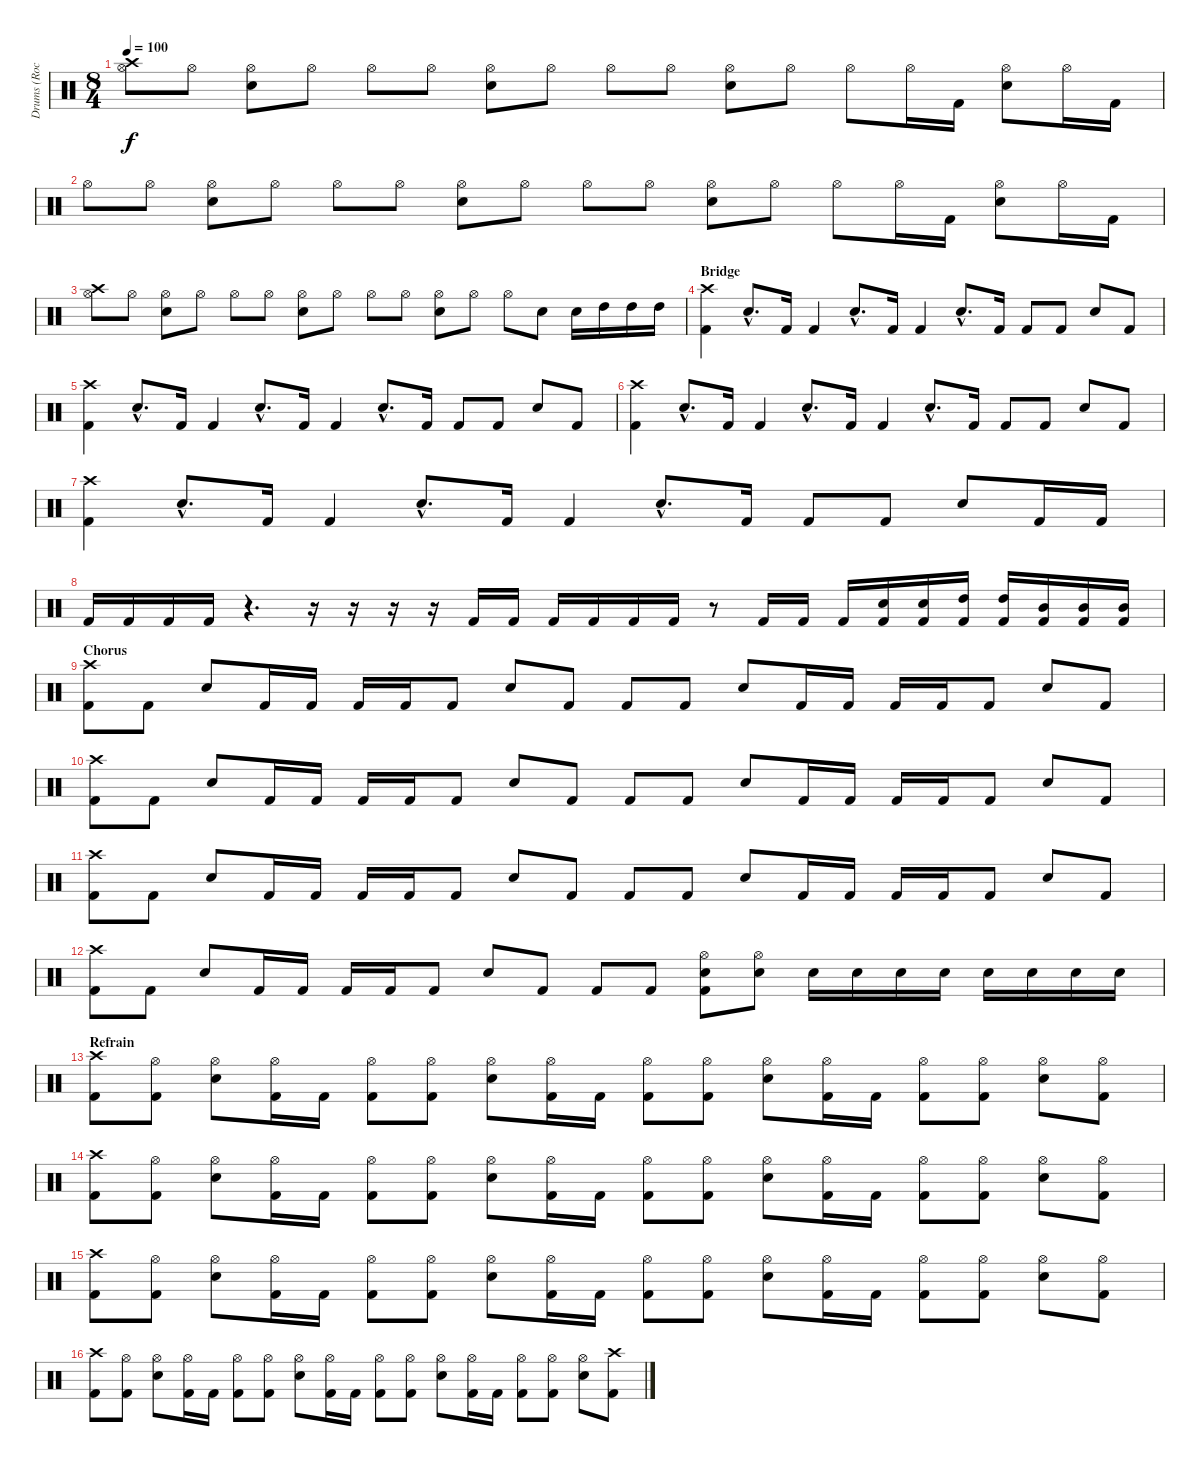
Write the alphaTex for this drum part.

\track ("Drums (Rocky Gray)" "Drums (Roc") {instrument percussion}
\staff {score}
\articulation defaults
\ts (8 4)
\tempo 100
\clef neutral
\ks c
("Crash high (hit)" "Hi-Hat (open)").8{dy f} "Hi-Hat (open)".8 ("Hi-Hat (open)" "Electric Snare (hit)").8 "Hi-Hat (open)".8 "Hi-Hat (open)".8 "Hi-Hat (open)".8 ("Hi-Hat (open)" "Electric Snare (hit)").8 "Hi-Hat (open)".8 "Hi-Hat (open)".8 "Hi-Hat (open)".8 ("Hi-Hat (open)" "Electric Snare (hit)").8 "Hi-Hat (open)".8 "Hi-Hat (open)".8 "Hi-Hat (open)".16 "Kick (hit) 2".16 ("Hi-Hat (open)" "Electric Snare (hit)").8 "Hi-Hat (open)".16 "Kick (hit) 2".16 |
"Hi-Hat (open)".8 "Hi-Hat (open)".8 ("Hi-Hat (open)" "Electric Snare (hit)").8 "Hi-Hat (open)".8 "Hi-Hat (open)".8 "Hi-Hat (open)".8 ("Hi-Hat (open)" "Electric Snare (hit)").8 "Hi-Hat (open)".8 "Hi-Hat (open)".8 "Hi-Hat (open)".8 ("Hi-Hat (open)" "Electric Snare (hit)").8 "Hi-Hat (open)".8 "Hi-Hat (open)".8 "Hi-Hat (open)".16 "Kick (hit) 2".16 ("Hi-Hat (open)" "Electric Snare (hit)").8 "Hi-Hat (open)".16 "Kick (hit) 2".16 |
("Crash high (hit)" "Hi-Hat (open)").8 "Hi-Hat (open)".8 ("Hi-Hat (open)" "Electric Snare (hit)").8 "Hi-Hat (open)".8 "Hi-Hat (open)".8 "Hi-Hat (open)".8 ("Hi-Hat (open)" "Electric Snare (hit)").8 "Hi-Hat (open)".8 "Hi-Hat (open)".8 "Hi-Hat (open)".8 ("Hi-Hat (open)" "Electric Snare (hit)").8 "Hi-Hat (open)".8 "Hi-Hat (open)".8 "Electric Snare (hit)".8 "Electric Snare (hit)".16 "High Tom (hit)".16 "High Tom (hit)".16 "High Tom (hit)".16 |
\section ("" "Bridge")
("Crash high (hit)" "Kick (hit) 2").4 "Electric Snare (hit)"{hac}.8{d} "Kick (hit) 2".16 "Kick (hit) 2".4 "Electric Snare (hit)"{hac}.8{d} "Kick (hit) 2".16 "Kick (hit) 2".4 "Electric Snare (hit)"{hac}.8{d} "Kick (hit) 2".16 "Kick (hit) 2".8 "Kick (hit) 2".8 "Electric Snare (hit)".8 "Kick (hit) 2".8 |
("Crash high (hit)" "Kick (hit) 2").4 "Electric Snare (hit)"{hac}.8{d} "Kick (hit) 2".16 "Kick (hit) 2".4 "Electric Snare (hit)"{hac}.8{d} "Kick (hit) 2".16 "Kick (hit) 2".4 "Electric Snare (hit)"{hac}.8{d} "Kick (hit) 2".16 "Kick (hit) 2".8 "Kick (hit) 2".8 "Electric Snare (hit)".8 "Kick (hit) 2".8 |
("Crash high (hit)" "Kick (hit) 2").4 "Electric Snare (hit)"{hac}.8{d} "Kick (hit) 2".16 "Kick (hit) 2".4 "Electric Snare (hit)"{hac}.8{d} "Kick (hit) 2".16 "Kick (hit) 2".4 "Electric Snare (hit)"{hac}.8{d} "Kick (hit) 2".16 "Kick (hit) 2".8 "Kick (hit) 2".8 "Electric Snare (hit)".8 "Kick (hit) 2".8 |
("Crash high (hit)" "Kick (hit) 2").4 "Electric Snare (hit)"{hac}.8{d} "Kick (hit) 2".16 "Kick (hit) 2".4 "Electric Snare (hit)"{hac}.8{d} "Kick (hit) 2".16 "Kick (hit) 2".4 "Electric Snare (hit)"{hac}.8{d} "Kick (hit) 2".16 "Kick (hit) 2".8 "Kick (hit) 2".8 "Electric Snare (hit)".8 "Kick (hit) 2".16 "Kick (hit) 2".16 |
"Kick (hit) 2".16 "Kick (hit) 2".16 "Kick (hit) 2".16 "Kick (hit) 2".16 r.4{d} r.16 r.16 r.16 r.16 "Kick (hit) 2".16 "Kick (hit) 2".16 "Kick (hit) 2".16 "Kick (hit) 2".16 "Kick (hit) 2".16 "Kick (hit) 2".16 r.8 "Kick (hit) 2".16 "Kick (hit) 2".16 "Kick (hit) 2".16 ("Electric Snare (hit)" "Kick (hit) 2").16 ("Electric Snare (hit)" "Kick (hit) 2").16 ("High Tom (hit)" "Kick (hit) 2").16 ("High Tom (hit)" "Kick (hit) 2").16 ("Mid Tom (hit)" "Kick (hit) 2").16 ("Mid Tom (hit)" "Kick (hit) 2").16 ("Mid Tom (hit)" "Kick (hit) 2").16 |
\section ("" "Chorus")
("Crash high (hit)" "Kick (hit) 2").8 "Kick (hit) 2".8 "Electric Snare (hit)".8 "Kick (hit) 2".16 "Kick (hit) 2".16 "Kick (hit) 2".16 "Kick (hit) 2".16 "Kick (hit) 2".8 "Electric Snare (hit)".8 "Kick (hit) 2".8 "Kick (hit) 2".8 "Kick (hit) 2".8 "Electric Snare (hit)".8 "Kick (hit) 2".16 "Kick (hit) 2".16 "Kick (hit) 2".16 "Kick (hit) 2".16 "Kick (hit) 2".8 "Electric Snare (hit)".8 "Kick (hit) 2".8 |
("Crash high (hit)" "Kick (hit) 2").8 "Kick (hit) 2".8 "Electric Snare (hit)".8 "Kick (hit) 2".16 "Kick (hit) 2".16 "Kick (hit) 2".16 "Kick (hit) 2".16 "Kick (hit) 2".8 "Electric Snare (hit)".8 "Kick (hit) 2".8 "Kick (hit) 2".8 "Kick (hit) 2".8 "Electric Snare (hit)".8 "Kick (hit) 2".16 "Kick (hit) 2".16 "Kick (hit) 2".16 "Kick (hit) 2".16 "Kick (hit) 2".8 "Electric Snare (hit)".8 "Kick (hit) 2".8 |
("Crash high (hit)" "Kick (hit) 2").8 "Kick (hit) 2".8 "Electric Snare (hit)".8 "Kick (hit) 2".16 "Kick (hit) 2".16 "Kick (hit) 2".16 "Kick (hit) 2".16 "Kick (hit) 2".8 "Electric Snare (hit)".8 "Kick (hit) 2".8 "Kick (hit) 2".8 "Kick (hit) 2".8 "Electric Snare (hit)".8 "Kick (hit) 2".16 "Kick (hit) 2".16 "Kick (hit) 2".16 "Kick (hit) 2".16 "Kick (hit) 2".8 "Electric Snare (hit)".8 "Kick (hit) 2".8 |
("Crash high (hit)" "Kick (hit) 2").8 "Kick (hit) 2".8 "Electric Snare (hit)".8 "Kick (hit) 2".16 "Kick (hit) 2".16 "Kick (hit) 2".16 "Kick (hit) 2".16 "Kick (hit) 2".8 "Electric Snare (hit)".8 "Kick (hit) 2".8 "Kick (hit) 2".8 "Kick (hit) 2".8 ("Hi-Hat (open)" "Electric Snare (hit)" "Kick (hit) 2").8 ("Hi-Hat (open)" "Electric Snare (hit)").8 "Electric Snare (hit)".16 "Electric Snare (hit)".16 "Electric Snare (hit)".16 "Electric Snare (hit)".16 "Electric Snare (hit)".16 "Electric Snare (hit)".16 "Electric Snare (hit)".16 "Electric Snare (hit)".16 |
\section ("" "Refrain")
("Crash high (hit)" "Kick (hit) 2").8 ("Hi-Hat (open)" "Kick (hit) 2").8 ("Hi-Hat (open)" "Electric Snare (hit)").8 ("Hi-Hat (open)" "Kick (hit) 2").16 "Kick (hit) 2".16 ("Hi-Hat (open)" "Kick (hit) 2").8 ("Hi-Hat (open)" "Kick (hit) 2").8 ("Hi-Hat (open)" "Electric Snare (hit)").8 ("Hi-Hat (open)" "Kick (hit) 2").16 "Kick (hit) 2".16 ("Hi-Hat (open)" "Kick (hit) 2").8 ("Hi-Hat (open)" "Kick (hit) 2").8 ("Hi-Hat (open)" "Electric Snare (hit)").8 ("Hi-Hat (open)" "Kick (hit) 2").16 "Kick (hit) 2".16 ("Hi-Hat (open)" "Kick (hit) 2").8 ("Hi-Hat (open)" "Kick (hit) 2").8 ("Hi-Hat (open)" "Electric Snare (hit)").8 ("Hi-Hat (open)" "Kick (hit) 2").8 |
("Crash high (hit)" "Kick (hit) 2").8 ("Hi-Hat (open)" "Kick (hit) 2").8 ("Hi-Hat (open)" "Electric Snare (hit)").8 ("Hi-Hat (open)" "Kick (hit) 2").16 "Kick (hit) 2".16 ("Hi-Hat (open)" "Kick (hit) 2").8 ("Hi-Hat (open)" "Kick (hit) 2").8 ("Hi-Hat (open)" "Electric Snare (hit)").8 ("Hi-Hat (open)" "Kick (hit) 2").16 "Kick (hit) 2".16 ("Hi-Hat (open)" "Kick (hit) 2").8 ("Hi-Hat (open)" "Kick (hit) 2").8 ("Hi-Hat (open)" "Electric Snare (hit)").8 ("Hi-Hat (open)" "Kick (hit) 2").16 "Kick (hit) 2".16 ("Hi-Hat (open)" "Kick (hit) 2").8 ("Hi-Hat (open)" "Kick (hit) 2").8 ("Hi-Hat (open)" "Electric Snare (hit)").8 ("Hi-Hat (open)" "Kick (hit) 2").8 |
("Crash high (hit)" "Kick (hit) 2").8 ("Hi-Hat (open)" "Kick (hit) 2").8 ("Hi-Hat (open)" "Electric Snare (hit)").8 ("Hi-Hat (open)" "Kick (hit) 2").16 "Kick (hit) 2".16 ("Hi-Hat (open)" "Kick (hit) 2").8 ("Hi-Hat (open)" "Kick (hit) 2").8 ("Hi-Hat (open)" "Electric Snare (hit)").8 ("Hi-Hat (open)" "Kick (hit) 2").16 "Kick (hit) 2".16 ("Hi-Hat (open)" "Kick (hit) 2").8 ("Hi-Hat (open)" "Kick (hit) 2").8 ("Hi-Hat (open)" "Electric Snare (hit)").8 ("Hi-Hat (open)" "Kick (hit) 2").16 "Kick (hit) 2".16 ("Hi-Hat (open)" "Kick (hit) 2").8 ("Hi-Hat (open)" "Kick (hit) 2").8 ("Hi-Hat (open)" "Electric Snare (hit)").8 ("Hi-Hat (open)" "Kick (hit) 2").8 |
("Crash high (hit)" "Kick (hit) 2").8 ("Hi-Hat (open)" "Kick (hit) 2").8 ("Hi-Hat (open)" "Electric Snare (hit)").8 ("Hi-Hat (open)" "Kick (hit) 2").16 "Kick (hit) 2".16 ("Hi-Hat (open)" "Kick (hit) 2").8 ("Hi-Hat (open)" "Kick (hit) 2").8 ("Hi-Hat (open)" "Electric Snare (hit)").8 ("Hi-Hat (open)" "Kick (hit) 2").16 "Kick (hit) 2".16 ("Hi-Hat (open)" "Kick (hit) 2").8 ("Hi-Hat (open)" "Kick (hit) 2").8 ("Hi-Hat (open)" "Electric Snare (hit)").8 ("Hi-Hat (open)" "Kick (hit) 2").16 "Kick (hit) 2".16 ("Hi-Hat (open)" "Kick (hit) 2").8 ("Hi-Hat (open)" "Kick (hit) 2").8 ("Hi-Hat (open)" "Electric Snare (hit)").8 ("Crash high (hit)" "Kick (hit) 2").8
